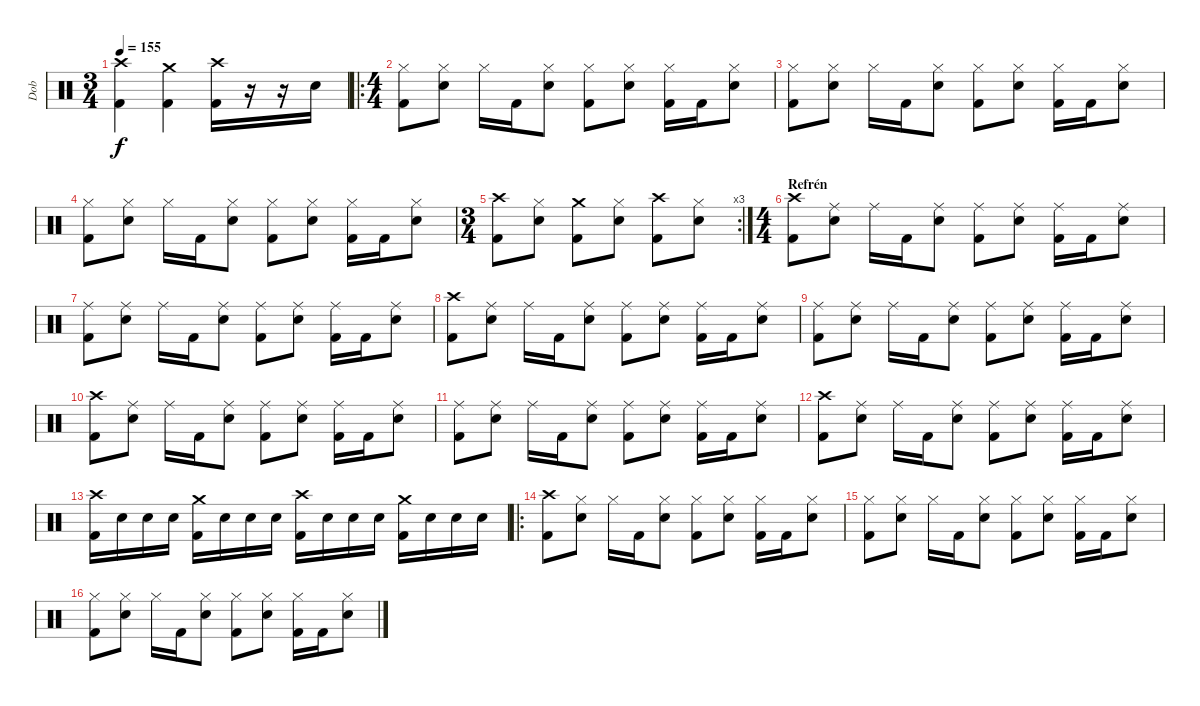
\track ("Dob" "Dob") {instrument percussion}
\staff {score}
\articulation defaults
\ts (3 4)
\tempo 155
\clef neutral
\ks c
("Kick (hit) 2" "Crash high (hit)").4{dy f} ("Kick (hit) 2" "Crash medium (hit)").4 ("Kick (hit) 2" "Crash high (hit)").16 r.16 r.16 "Snare (hit) 2".16 |
\ro
\ts (4 4)
("Hi-Hat (closed)" "Kick (hit) 2").8 ("Hi-Hat (closed)" "Snare (hit) 2").8 "Hi-Hat (closed)".16 "Kick (hit) 2".16 ("Hi-Hat (closed)" "Snare (hit) 2").8 ("Hi-Hat (closed)" "Kick (hit) 2").8 ("Hi-Hat (closed)" "Snare (hit) 2").8 ("Hi-Hat (closed)" "Kick (hit) 2").16 "Kick (hit) 2".16 ("Hi-Hat (closed)" "Snare (hit) 2").8 |
("Hi-Hat (closed)" "Kick (hit) 2").8 ("Hi-Hat (closed)" "Snare (hit) 2").8 "Hi-Hat (closed)".16 "Kick (hit) 2".16 ("Hi-Hat (closed)" "Snare (hit) 2").8 ("Hi-Hat (closed)" "Kick (hit) 2").8 ("Hi-Hat (closed)" "Snare (hit) 2").8 ("Hi-Hat (closed)" "Kick (hit) 2").16 "Kick (hit) 2".16 ("Hi-Hat (closed)" "Snare (hit) 2").8 |
("Hi-Hat (closed)" "Kick (hit) 2").8 ("Hi-Hat (closed)" "Snare (hit) 2").8 "Hi-Hat (closed)".16 "Kick (hit) 2".16 ("Hi-Hat (closed)" "Snare (hit) 2").8 ("Hi-Hat (closed)" "Kick (hit) 2").8 ("Hi-Hat (closed)" "Snare (hit) 2").8 ("Hi-Hat (closed)" "Kick (hit) 2").16 "Kick (hit) 2".16 ("Hi-Hat (closed)" "Snare (hit) 2").8 |
\rc 3
\ts (3 4)
("Crash high (hit)" "Kick (hit) 2").8 ("Hi-Hat (closed)" "Snare (hit) 2").8 ("Crash medium (hit)" "Kick (hit) 2").8 ("Hi-Hat (closed)" "Snare (hit) 2").8 ("Crash high (hit)" "Kick (hit) 2").8 ("Hi-Hat (closed)" "Snare (hit) 2").8 |
\ts (4 4)
\section ("" "Refrén")
("Crash high (hit)" "Kick (hit) 2").8 ("Ride (middle)" "Snare (hit) 2").8 "Ride (middle)".16 "Kick (hit) 2".16 ("Ride (middle)" "Snare (hit) 2").8 ("Ride (middle)" "Kick (hit) 2").8 ("Ride (middle)" "Snare (hit) 2").8 ("Ride (middle)" "Kick (hit) 2").16 "Kick (hit) 2".16 ("Ride (middle)" "Snare (hit) 2").8 |
("Ride (middle)" "Kick (hit) 2").8 ("Ride (middle)" "Snare (hit) 2").8 "Ride (middle)".16 "Kick (hit) 2".16 ("Ride (middle)" "Snare (hit) 2").8 ("Ride (middle)" "Kick (hit) 2").8 ("Ride (middle)" "Snare (hit) 2").8 ("Ride (middle)" "Kick (hit) 2").16 "Kick (hit) 2".16 ("Ride (middle)" "Snare (hit) 2").8 |
("Crash high (hit)" "Kick (hit) 2").8 ("Ride (middle)" "Snare (hit) 2").8 "Ride (middle)".16 "Kick (hit) 2".16 ("Ride (middle)" "Snare (hit) 2").8 ("Ride (middle)" "Kick (hit) 2").8 ("Ride (middle)" "Snare (hit) 2").8 ("Ride (middle)" "Kick (hit) 2").16 "Kick (hit) 2".16 ("Ride (middle)" "Snare (hit) 2").8 |
("Ride (middle)" "Kick (hit) 2").8 ("Ride (middle)" "Snare (hit) 2").8 "Ride (middle)".16 "Kick (hit) 2".16 ("Ride (middle)" "Snare (hit) 2").8 ("Ride (middle)" "Kick (hit) 2").8 ("Ride (middle)" "Snare (hit) 2").8 ("Ride (middle)" "Kick (hit) 2").16 "Kick (hit) 2".16 ("Ride (middle)" "Snare (hit) 2").8 |
("Crash high (hit)" "Kick (hit) 2").8 ("Ride (middle)" "Snare (hit) 2").8 "Ride (middle)".16 "Kick (hit) 2".16 ("Ride (middle)" "Snare (hit) 2").8 ("Ride (middle)" "Kick (hit) 2").8 ("Ride (middle)" "Snare (hit) 2").8 ("Ride (middle)" "Kick (hit) 2").16 "Kick (hit) 2".16 ("Ride (middle)" "Snare (hit) 2").8 |
("Ride (middle)" "Kick (hit) 2").8 ("Ride (middle)" "Snare (hit) 2").8 "Ride (middle)".16 "Kick (hit) 2".16 ("Ride (middle)" "Snare (hit) 2").8 ("Ride (middle)" "Kick (hit) 2").8 ("Ride (middle)" "Snare (hit) 2").8 ("Ride (middle)" "Kick (hit) 2").16 "Kick (hit) 2".16 ("Ride (middle)" "Snare (hit) 2").8 |
("Crash high (hit)" "Kick (hit) 2").8 ("Ride (middle)" "Snare (hit) 2").8 "Ride (middle)".16 "Kick (hit) 2".16 ("Ride (middle)" "Snare (hit) 2").8 ("Ride (middle)" "Kick (hit) 2").8 ("Ride (middle)" "Snare (hit) 2").8 ("Ride (middle)" "Kick (hit) 2").16 "Kick (hit) 2".16 ("Ride (middle)" "Snare (hit) 2").8 |
("Crash high (hit)" "Kick (hit) 2").16 "Snare (hit) 2".16 "Snare (hit) 2".16 "Snare (hit) 2".16 ("Crash medium (hit)" "Kick (hit) 2").16 "Snare (hit) 2".16 "Snare (hit) 2".16 "Snare (hit) 2".16 ("Crash high (hit)" "Kick (hit) 2").16 "Snare (hit) 2".16 "Snare (hit) 2".16 "Snare (hit) 2".16 ("Crash medium (hit)" "Kick (hit) 2").16 "Snare (hit) 2".16 "Snare (hit) 2".16 "Snare (hit) 2".16 |
\ro
("Crash high (hit)" "Kick (hit) 2").8 ("Hi-Hat (closed)" "Snare (hit) 2").8 "Hi-Hat (closed)".16 "Kick (hit) 2".16 ("Hi-Hat (closed)" "Snare (hit) 2").8 ("Hi-Hat (closed)" "Kick (hit) 2").8 ("Hi-Hat (closed)" "Snare (hit) 2").8 ("Hi-Hat (closed)" "Kick (hit) 2").16 "Kick (hit) 2".16 ("Hi-Hat (closed)" "Snare (hit) 2").8 |
("Hi-Hat (closed)" "Kick (hit) 2").8 ("Hi-Hat (closed)" "Snare (hit) 2").8 "Hi-Hat (closed)".16 "Kick (hit) 2".16 ("Hi-Hat (closed)" "Snare (hit) 2").8 ("Hi-Hat (closed)" "Kick (hit) 2").8 ("Hi-Hat (closed)" "Snare (hit) 2").8 ("Hi-Hat (closed)" "Kick (hit) 2").16 "Kick (hit) 2".16 ("Hi-Hat (closed)" "Snare (hit) 2").8 |
("Hi-Hat (closed)" "Kick (hit) 2").8 ("Hi-Hat (closed)" "Snare (hit) 2").8 "Hi-Hat (closed)".16 "Kick (hit) 2".16 ("Hi-Hat (closed)" "Snare (hit) 2").8 ("Hi-Hat (closed)" "Kick (hit) 2").8 ("Hi-Hat (closed)" "Snare (hit) 2").8 ("Hi-Hat (closed)" "Kick (hit) 2").16 "Kick (hit) 2".16 ("Hi-Hat (closed)" "Snare (hit) 2").8
